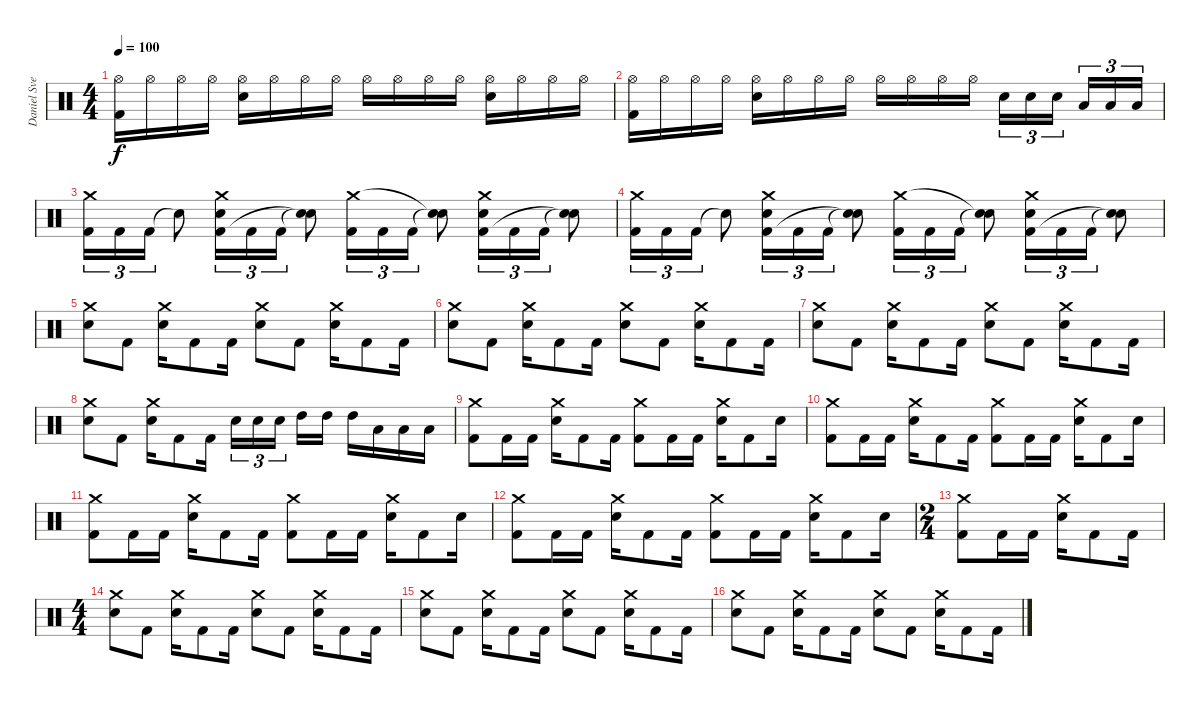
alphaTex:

\track ("Daniel Svennson" "Daniel Sve") {instrument percussion}
\staff {score}
\articulation defaults
\ts (4 4)
\tempo 100
\clef neutral
\ks c
("Hi-Hat (open)" "Kick (hit) 2").16{dy f} "Hi-Hat (open)".16 "Hi-Hat (open)".16 "Hi-Hat (open)".16 ("Hi-Hat (open)" "Snare (hit) 2").16 "Hi-Hat (open)".16 "Hi-Hat (open)".16 "Hi-Hat (open)".16 "Hi-Hat (open)".16 "Hi-Hat (open)".16 "Hi-Hat (open)".16 "Hi-Hat (open)".16 ("Hi-Hat (open)" "Snare (hit) 2").16 "Hi-Hat (open)".16 "Hi-Hat (open)".16 "Hi-Hat (open)".16 |
("Hi-Hat (open)" "Kick (hit) 2").16 "Hi-Hat (open)".16 "Hi-Hat (open)".16 "Hi-Hat (open)".16 ("Hi-Hat (open)" "Snare (hit) 2").16 "Hi-Hat (open)".16 "Hi-Hat (open)".16 "Hi-Hat (open)".16 "Hi-Hat (open)".16 "Hi-Hat (open)".16 "Hi-Hat (open)".16 "Hi-Hat (open)".16 "Snare (hit) 2".16{tu (3 2)} "Snare (hit) 2".16{tu (3 2)} "Snare (hit) 2".16{tu (3 2)} "Low Floor Tom (hit)".16{tu (3 2)} "Low Floor Tom (hit)".16{tu (3 2)} "Low Floor Tom (hit)".16{tu (3 2)} |
("Kick (hit) 2" "Crash medium (hit)").16{tu (3 2)} "Kick (hit) 2".16{tu (3 2)} "Kick (hit) 2".16{tu (3 2)} "Snare (hit)"{t}.8 ("Snare (hit) 2" "Kick (hit) 2" "Crash medium (hit)").16{tu (3 2)} "Kick (hit) 2".16{tu (3 2)} "Kick (hit) 2".16{tu (3 2)} ("Snare (hit)"{t} "Snare (hit)"{t}).8 ("Kick (hit) 2" "Crash medium (hit)").16{tu (3 2)} "Kick (hit) 2".16{tu (3 2)} "Kick (hit) 2".16{tu (3 2)} ("Snare (hit)"{t} "Snare (hit)"{t}).8 ("Snare (hit) 2" "Kick (hit) 2" "Crash medium (hit)").16{tu (3 2)} "Kick (hit) 2".16{tu (3 2)} "Kick (hit) 2".16{tu (3 2)} ("Snare (hit)"{t} "Snare (hit)"{t}).8 |
("Kick (hit) 2" "Crash medium (hit)").16{tu (3 2)} "Kick (hit) 2".16{tu (3 2)} "Kick (hit) 2".16{tu (3 2)} "Snare (hit)"{t}.8 ("Snare (hit) 2" "Kick (hit) 2" "Crash medium (hit)").16{tu (3 2)} "Kick (hit) 2".16{tu (3 2)} "Kick (hit) 2".16{tu (3 2)} ("Snare (hit)"{t} "Snare (hit)"{t}).8 ("Kick (hit) 2" "Crash medium (hit)").16{tu (3 2)} "Kick (hit) 2".16{tu (3 2)} "Kick (hit) 2".16{tu (3 2)} ("Snare (hit)"{t} "Snare (hit)"{t}).8 ("Snare (hit) 2" "Kick (hit) 2" "Crash medium (hit)").16{tu (3 2)} "Kick (hit) 2".16{tu (3 2)} "Kick (hit) 2".16{tu (3 2)} ("Snare (hit)"{t} "Snare (hit)"{t}).8 |
("Snare (hit) 2" "Crash medium (hit)").8 "Kick (hit) 2".8 ("Snare (hit) 2" "Crash medium (hit)").16 "Kick (hit) 2".8 "Kick (hit) 2".16 ("Snare (hit) 2" "Crash medium (hit)").8 "Kick (hit) 2".8 ("Snare (hit) 2" "Crash medium (hit)").16 "Kick (hit) 2".8 "Kick (hit) 2".16 |
("Snare (hit) 2" "Crash medium (hit)").8 "Kick (hit) 2".8 ("Snare (hit) 2" "Crash medium (hit)").16 "Kick (hit) 2".8 "Kick (hit) 2".16 ("Snare (hit) 2" "Crash medium (hit)").8 "Kick (hit) 2".8 ("Snare (hit) 2" "Crash medium (hit)").16 "Kick (hit) 2".8 "Kick (hit) 2".16 |
("Snare (hit) 2" "Crash medium (hit)").8 "Kick (hit) 2".8 ("Snare (hit) 2" "Crash medium (hit)").16 "Kick (hit) 2".8 "Kick (hit) 2".16 ("Snare (hit) 2" "Crash medium (hit)").8 "Kick (hit) 2".8 ("Snare (hit) 2" "Crash medium (hit)").16 "Kick (hit) 2".8 "Kick (hit) 2".16 |
("Snare (hit) 2" "Crash medium (hit)").8 "Kick (hit) 2".8 ("Snare (hit) 2" "Crash medium (hit)").16 "Kick (hit) 2".8 "Kick (hit) 2".16 "Snare (hit) 2".16{tu (3 2)} "Snare (hit) 2".16{tu (3 2)} "Snare (hit) 2".16{tu (3 2)} "High Tom (hit)".16 "High Tom (hit)".16 "High Tom (hit)".16 "Low Tom (hit)".16 "Low Tom (hit)".16 "Low Floor Tom (hit)".16 |
("Kick (hit) 2" "Crash medium (hit)").8 "Kick (hit) 2".16 "Kick (hit) 2".16 ("Snare (hit) 2" "Crash medium (hit)").16 "Kick (hit) 2".8 "Kick (hit) 2".16 ("Kick (hit) 2" "Crash medium (hit)").8 "Kick (hit) 2".16 "Kick (hit) 2".16 ("Snare (hit) 2" "Crash medium (hit)").16 "Kick (hit) 2".8 "Snare (hit) 2".16 |
("Kick (hit) 2" "Crash medium (hit)").8 "Kick (hit) 2".16 "Kick (hit) 2".16 ("Snare (hit) 2" "Crash medium (hit)").16 "Kick (hit) 2".8 "Kick (hit) 2".16 ("Kick (hit) 2" "Crash medium (hit)").8 "Kick (hit) 2".16 "Kick (hit) 2".16 ("Snare (hit) 2" "Crash medium (hit)").16 "Kick (hit) 2".8 "Snare (hit) 2".16 |
("Kick (hit) 2" "Crash medium (hit)").8 "Kick (hit) 2".16 "Kick (hit) 2".16 ("Snare (hit) 2" "Crash medium (hit)").16 "Kick (hit) 2".8 "Kick (hit) 2".16 ("Kick (hit) 2" "Crash medium (hit)").8 "Kick (hit) 2".16 "Kick (hit) 2".16 ("Snare (hit) 2" "Crash medium (hit)").16 "Kick (hit) 2".8 "Snare (hit) 2".16 |
("Kick (hit) 2" "Crash medium (hit)").8 "Kick (hit) 2".16 "Kick (hit) 2".16 ("Snare (hit) 2" "Crash medium (hit)").16 "Kick (hit) 2".8 "Kick (hit) 2".16 ("Kick (hit) 2" "Crash medium (hit)").8 "Kick (hit) 2".16 "Kick (hit) 2".16 ("Snare (hit) 2" "Crash medium (hit)").16 "Kick (hit) 2".8 "Snare (hit) 2".16 |
\ts (2 4)
("Kick (hit) 2" "Crash medium (hit)").8 "Kick (hit) 2".16 "Kick (hit) 2".16 ("Snare (hit) 2" "Crash medium (hit)").16 "Kick (hit) 2".8 "Kick (hit) 2".16 |
\ts (4 4)
("Snare (hit) 2" "Crash medium (hit)").8 "Kick (hit) 2".8 ("Snare (hit) 2" "Crash medium (hit)").16 "Kick (hit) 2".8 "Kick (hit) 2".16 ("Snare (hit) 2" "Crash medium (hit)").8 "Kick (hit) 2".8 ("Snare (hit) 2" "Crash medium (hit)").16 "Kick (hit) 2".8 "Kick (hit) 2".16 |
("Snare (hit) 2" "Crash medium (hit)").8 "Kick (hit) 2".8 ("Snare (hit) 2" "Crash medium (hit)").16 "Kick (hit) 2".8 "Kick (hit) 2".16 ("Snare (hit) 2" "Crash medium (hit)").8 "Kick (hit) 2".8 ("Snare (hit) 2" "Crash medium (hit)").16 "Kick (hit) 2".8 "Kick (hit) 2".16 |
("Snare (hit) 2" "Crash medium (hit)").8 "Kick (hit) 2".8 ("Snare (hit) 2" "Crash medium (hit)").16 "Kick (hit) 2".8 "Kick (hit) 2".16 ("Snare (hit) 2" "Crash medium (hit)").8 "Kick (hit) 2".8 ("Snare (hit) 2" "Crash medium (hit)").16 "Kick (hit) 2".8 "Kick (hit) 2".16
